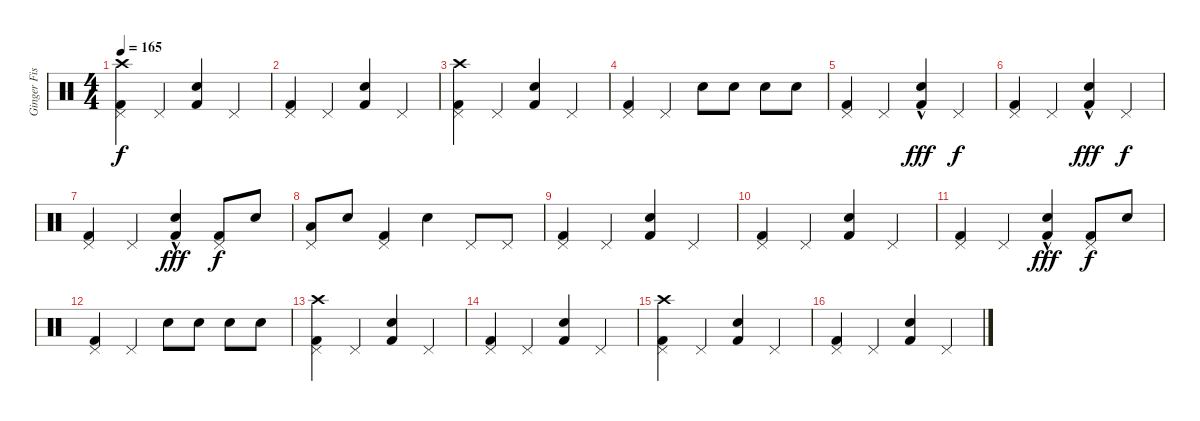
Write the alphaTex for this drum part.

\track ("Ginger Fish" "Ginger Fis") {instrument percussion}
\staff {score}
\articulation defaults
\ts (4 4)
\tempo 165
\clef neutral
\ks c
("Crash high (hit)" "Pedal Hi-Hat (hit)" "Kick (hit) 2").4{dy f} "Pedal Hi-Hat (hit)".4 ("Electric Snare (hit)" "Kick (hit) 2").4 "Pedal Hi-Hat (hit)".4 |
("Pedal Hi-Hat (hit)" "Kick (hit) 2").4 "Pedal Hi-Hat (hit)".4 ("Electric Snare (hit)" "Kick (hit) 2").4 "Pedal Hi-Hat (hit)".4 |
("Crash high (hit)" "Pedal Hi-Hat (hit)" "Kick (hit) 2").4 "Pedal Hi-Hat (hit)".4 ("Electric Snare (hit)" "Kick (hit) 2").4 "Pedal Hi-Hat (hit)".4 |
("Pedal Hi-Hat (hit)" "Kick (hit) 2").4 "Pedal Hi-Hat (hit)".4 "Electric Snare (hit)".8 "Electric Snare (hit)".8 "Electric Snare (hit)".8 "Electric Snare (hit)".8 |
("Pedal Hi-Hat (hit)" "Kick (hit) 2").4 "Pedal Hi-Hat (hit)".4 ("Electric Snare (hit)"{hac} "Kick (hit) 2").4{dy fff} "Pedal Hi-Hat (hit)".4{dy f} |
("Pedal Hi-Hat (hit)" "Kick (hit) 2").4 "Pedal Hi-Hat (hit)".4 ("Electric Snare (hit)"{hac} "Kick (hit) 2").4{dy fff} "Pedal Hi-Hat (hit)".4{dy f} |
("Pedal Hi-Hat (hit)" "Kick (hit) 2").4 "Pedal Hi-Hat (hit)".4 ("Electric Snare (hit)"{hac} "Kick (hit) 2").4{dy fff} ("Pedal Hi-Hat (hit)" "Kick (hit) 2").8{dy f} "Electric Snare (hit)".8 |
("Pedal Hi-Hat (hit)" "Low Tom (hit)").8 "Electric Snare (hit)".8 ("Pedal Hi-Hat (hit)" "Kick (hit) 2").4 "Electric Snare (hit)".4 "Pedal Hi-Hat (hit)".8 "Pedal Hi-Hat (hit)".8 |
("Pedal Hi-Hat (hit)" "Kick (hit) 2").4 "Pedal Hi-Hat (hit)".4 ("Electric Snare (hit)" "Kick (hit) 2").4 "Pedal Hi-Hat (hit)".4 |
("Pedal Hi-Hat (hit)" "Kick (hit) 2").4 "Pedal Hi-Hat (hit)".4 ("Electric Snare (hit)" "Kick (hit) 2").4 "Pedal Hi-Hat (hit)".4 |
("Pedal Hi-Hat (hit)" "Kick (hit) 2").4 "Pedal Hi-Hat (hit)".4 ("Electric Snare (hit)"{hac} "Kick (hit) 2").4{dy fff} ("Pedal Hi-Hat (hit)" "Kick (hit) 2").8{dy f} "Electric Snare (hit)".8 |
("Pedal Hi-Hat (hit)" "Kick (hit) 2").4 "Pedal Hi-Hat (hit)".4 "Electric Snare (hit)".8 "Electric Snare (hit)".8 "Electric Snare (hit)".8 "Electric Snare (hit)".8 |
("Crash high (hit)" "Pedal Hi-Hat (hit)" "Kick (hit) 2").4 "Pedal Hi-Hat (hit)".4 ("Electric Snare (hit)" "Kick (hit) 2").4 "Pedal Hi-Hat (hit)".4 |
("Pedal Hi-Hat (hit)" "Kick (hit) 2").4 "Pedal Hi-Hat (hit)".4 ("Electric Snare (hit)" "Kick (hit) 2").4 "Pedal Hi-Hat (hit)".4 |
("Crash high (hit)" "Pedal Hi-Hat (hit)" "Kick (hit) 2").4 "Pedal Hi-Hat (hit)".4 ("Electric Snare (hit)" "Kick (hit) 2").4 "Pedal Hi-Hat (hit)".4 |
("Pedal Hi-Hat (hit)" "Kick (hit) 2").4 "Pedal Hi-Hat (hit)".4 ("Electric Snare (hit)" "Kick (hit) 2").4 "Pedal Hi-Hat (hit)".4
